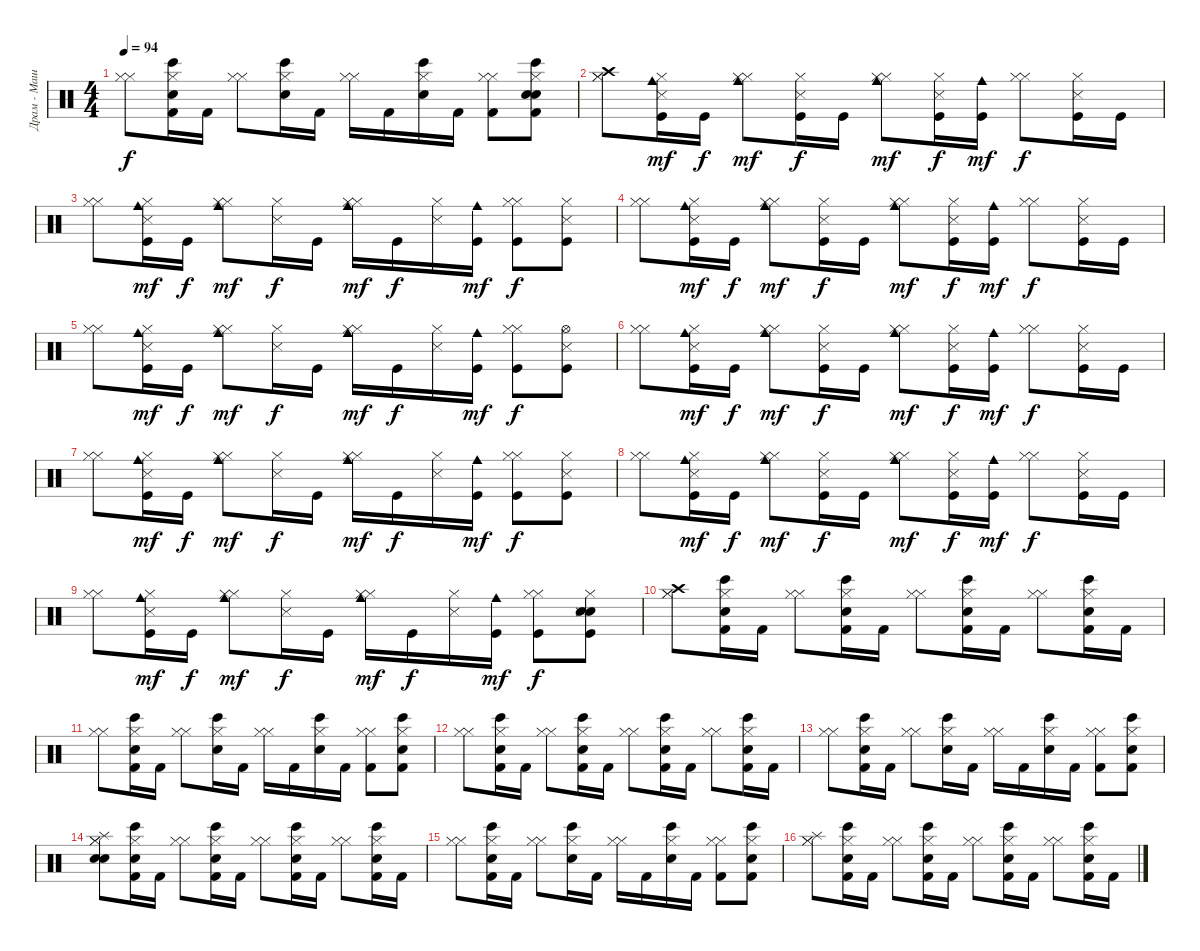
\track ("Драм - Машина" "Драм - Маш") {instrument percussion}
\staff {score}
\articulation defaults
\ts (4 4)
\tempo 94
\clef neutral
\ks c
("Hi-Hat (closed)" "Hi-Hat (closed)").8{dy f} ("Bongo High (hit)" "Snare (hit) 2" "Hi-Hat (closed)" "Kick (hit) 2").16 "Kick (hit) 2".16 ("Hi-Hat (closed)" "Hi-Hat (closed)").8 ("Hi-Hat (closed)" "Snare (hit) 2" "Bongo High (hit)").16 "Kick (hit) 2".16 ("Hi-Hat (closed)" "Hi-Hat (closed)").16 "Kick (hit) 2".16 ("Snare (hit) 2" "Hi-Hat (closed)" "Bongo High (hit)").16 "Kick (hit) 2".16 ("Hi-Hat (closed)" "Hi-Hat (closed)" "Kick (hit) 2").8 ("Electric Snare (hit)" "Bongo High (hit)" "Hi-Hat (closed)" "Snare (hit) 2" "Kick (hit) 2").8 |
("Hi-Hat (closed)" "Crash high (hit)" "Hi-Hat (closed)").8 ("Snare (side stick) 3" "Hi-Hat (closed)" "Kick (hit)" "Cowbell medium (hit)").16{dy mf} "Kick (hit)".16{dy f} ("Cowbell medium (hit)" "Hi-Hat (closed)" "Hi-Hat (closed)").8{dy mf} ("Snare (side stick) 3" "Hi-Hat (closed)" "Kick (hit)").16{dy f} "Kick (hit)".16 ("Hi-Hat (closed)" "Cowbell medium (hit)" "Hi-Hat (closed)").8{dy mf} ("Hi-Hat (closed)" "Snare (side stick) 3" "Kick (hit)").16{dy f} ("Cowbell medium (hit)" "Kick (hit)").16{dy mf} ("Hi-Hat (closed)" "Hi-Hat (closed)").8{dy f} ("Snare (side stick) 3" "Hi-Hat (closed)" "Kick (hit)").16 "Kick (hit)".16 |
("Hi-Hat (closed)" "Hi-Hat (closed)").8 ("Snare (side stick) 3" "Hi-Hat (closed)" "Kick (hit)" "Cowbell medium (hit)").16{dy mf} "Kick (hit)".16{dy f} ("Hi-Hat (closed)" "Cowbell medium (hit)" "Hi-Hat (closed)").8{dy mf} ("Snare (side stick) 3" "Hi-Hat (closed)").16{dy f} "Kick (hit)".16 ("Hi-Hat (closed)" "Cowbell medium (hit)" "Hi-Hat (closed)").16{dy mf} "Kick (hit)".16{dy f} ("Hi-Hat (closed)" "Snare (side stick) 3").16 ("Cowbell medium (hit)" "Kick (hit)").16{dy mf} ("Hi-Hat (closed)" "Hi-Hat (closed)" "Kick (hit)").8{dy f} ("Hi-Hat (closed)" "Snare (side stick) 3" "Kick (hit)").8 |
("Hi-Hat (closed)" "Hi-Hat (closed)").8 ("Hi-Hat (closed)" "Snare (side stick) 3" "Kick (hit)" "Cowbell medium (hit)").16{dy mf} "Kick (hit)".16{dy f} ("Hi-Hat (closed)" "Cowbell medium (hit)" "Hi-Hat (closed)").8{dy mf} ("Snare (side stick) 3" "Hi-Hat (closed)" "Kick (hit)").16{dy f} "Kick (hit)".16 ("Hi-Hat (closed)" "Cowbell medium (hit)" "Hi-Hat (closed)").8{dy mf} ("Hi-Hat (closed)" "Snare (side stick) 3" "Kick (hit)").16{dy f} ("Cowbell medium (hit)" "Kick (hit)").16{dy mf} ("Hi-Hat (closed)" "Hi-Hat (closed)").8{dy f} ("Hi-Hat (closed)" "Snare (side stick) 3" "Kick (hit)").16 "Kick (hit)".16 |
("Hi-Hat (closed)" "Hi-Hat (closed)").8 ("Hi-Hat (closed)" "Snare (side stick) 3" "Kick (hit)" "Cowbell medium (hit)").16{dy mf} "Kick (hit)".16{dy f} ("Cowbell medium (hit)" "Hi-Hat (closed)" "Hi-Hat (closed)").8{dy mf} ("Hi-Hat (closed)" "Snare (side stick) 3").16{dy f} "Kick (hit)".16 ("Cowbell medium (hit)" "Hi-Hat (closed)" "Hi-Hat (closed)").16{dy mf} "Kick (hit)".16{dy f} ("Snare (side stick) 3" "Hi-Hat (closed)").16 ("Cowbell medium (hit)" "Kick (hit)").16{dy mf} ("Hi-Hat (closed)" "Hi-Hat (closed)" "Kick (hit)").8{dy f} ("Snare (side stick) 3" "Hi-Hat (open)" "Kick (hit)").8 |
("Hi-Hat (closed)" "Hi-Hat (closed)").8 ("Hi-Hat (closed)" "Snare (side stick) 3" "Kick (hit)" "Cowbell medium (hit)").16{dy mf} "Kick (hit)".16{dy f} ("Cowbell medium (hit)" "Hi-Hat (closed)" "Hi-Hat (closed)").8{dy mf} ("Hi-Hat (closed)" "Snare (side stick) 3" "Kick (hit)").16{dy f} "Kick (hit)".16 ("Cowbell medium (hit)" "Hi-Hat (closed)" "Hi-Hat (closed)").8{dy mf} ("Hi-Hat (closed)" "Snare (side stick) 3" "Kick (hit)").16{dy f} ("Cowbell medium (hit)" "Kick (hit)").16{dy mf} ("Hi-Hat (closed)" "Hi-Hat (closed)").8{dy f} ("Hi-Hat (closed)" "Snare (side stick) 3" "Kick (hit)").16 "Kick (hit)".16 |
("Hi-Hat (closed)" "Hi-Hat (closed)").8 ("Hi-Hat (closed)" "Snare (side stick) 3" "Kick (hit)" "Cowbell medium (hit)").16{dy mf} "Kick (hit)".16{dy f} ("Hi-Hat (closed)" "Hi-Hat (closed)" "Cowbell medium (hit)").8{dy mf} ("Snare (side stick) 3" "Hi-Hat (closed)").16{dy f} "Kick (hit)".16 ("Cowbell medium (hit)" "Hi-Hat (closed)" "Hi-Hat (closed)").16{dy mf} "Kick (hit)".16{dy f} ("Snare (side stick) 3" "Hi-Hat (closed)").16 ("Cowbell medium (hit)" "Kick (hit)").16{dy mf} ("Hi-Hat (closed)" "Hi-Hat (closed)" "Kick (hit)").8{dy f} ("Snare (side stick) 3" "Hi-Hat (closed)" "Kick (hit)").8 |
("Hi-Hat (closed)" "Hi-Hat (closed)").8 ("Hi-Hat (closed)" "Snare (side stick) 3" "Kick (hit)" "Cowbell medium (hit)").16{dy mf} "Kick (hit)".16{dy f} ("Hi-Hat (closed)" "Cowbell medium (hit)" "Hi-Hat (closed)").8{dy mf} ("Snare (side stick) 3" "Hi-Hat (closed)" "Kick (hit)").16{dy f} "Kick (hit)".16 ("Hi-Hat (closed)" "Cowbell medium (hit)" "Hi-Hat (closed)").8{dy mf} ("Snare (side stick) 3" "Hi-Hat (closed)" "Kick (hit)").16{dy f} ("Cowbell medium (hit)" "Kick (hit)").16{dy mf} ("Hi-Hat (closed)" "Hi-Hat (closed)").8{dy f} ("Hi-Hat (closed)" "Snare (side stick) 3" "Kick (hit)").16 "Kick (hit)".16 |
("Hi-Hat (closed)" "Hi-Hat (closed)").8 ("Hi-Hat (closed)" "Snare (side stick) 3" "Kick (hit)" "Cowbell medium (hit)").16{dy mf} "Kick (hit)".16{dy f} ("Hi-Hat (closed)" "Cowbell medium (hit)" "Hi-Hat (closed)").8{dy mf} ("Hi-Hat (closed)" "Snare (side stick) 3").16{dy f} "Kick (hit)".16 ("Hi-Hat (closed)" "Cowbell medium (hit)" "Hi-Hat (closed)").16{dy mf} "Kick (hit)".16{dy f} ("Snare (side stick) 3" "Hi-Hat (closed)").16 ("Cowbell medium (hit)" "Kick (hit)").16{dy mf} ("Hi-Hat (closed)" "Hi-Hat (closed)" "Kick (hit)").8{dy f} ("Electric Snare (hit)" "Snare (side stick) 3" "Hi-Hat (closed)" "Snare (hit) 2" "Kick (hit)").8 |
("Hi-Hat (closed)" "Hi-Hat (closed)" "Crash high (hit)").8 ("Bongo High (hit)" "Snare (hit) 2" "Hi-Hat (closed)" "Kick (hit) 2").16 "Kick (hit) 2".16 ("Hi-Hat (closed)" "Hi-Hat (closed)").8 ("Snare (hit) 2" "Hi-Hat (closed)" "Bongo High (hit)" "Kick (hit) 2").16 "Kick (hit) 2".16 ("Hi-Hat (closed)" "Hi-Hat (closed)").8 ("Snare (hit) 2" "Bongo High (hit)" "Hi-Hat (closed)" "Kick (hit) 2").16 "Kick (hit) 2".16 ("Hi-Hat (closed)" "Hi-Hat (closed)").8 ("Hi-Hat (closed)" "Bongo High (hit)" "Snare (hit) 2" "Kick (hit) 2").16 "Kick (hit) 2".16 |
("Hi-Hat (closed)" "Hi-Hat (closed)").8 ("Snare (hit) 2" "Hi-Hat (closed)" "Bongo High (hit)" "Kick (hit) 2").16 "Kick (hit) 2".16 ("Hi-Hat (closed)" "Hi-Hat (closed)").8 ("Bongo High (hit)" "Hi-Hat (closed)" "Snare (hit) 2").16 "Kick (hit) 2".16 ("Hi-Hat (closed)" "Hi-Hat (closed)").16 "Kick (hit) 2".16 ("Hi-Hat (closed)" "Bongo High (hit)" "Snare (hit) 2").16 "Kick (hit) 2".16 ("Hi-Hat (closed)" "Hi-Hat (closed)" "Kick (hit) 2").8 ("Snare (hit) 2" "Bongo High (hit)" "Hi-Hat (closed)" "Kick (hit) 2").8 |
("Hi-Hat (closed)" "Hi-Hat (closed)").8 ("Bongo High (hit)" "Hi-Hat (closed)" "Snare (hit) 2" "Kick (hit) 2").16 "Kick (hit) 2".16 ("Hi-Hat (closed)" "Hi-Hat (closed)").8 ("Bongo High (hit)" "Snare (hit) 2" "Hi-Hat (closed)" "Kick (hit) 2").16 "Kick (hit) 2".16 ("Hi-Hat (closed)" "Hi-Hat (closed)").8 ("Hi-Hat (closed)" "Bongo High (hit)" "Snare (hit) 2" "Kick (hit) 2").16 "Kick (hit) 2".16 ("Hi-Hat (closed)" "Hi-Hat (closed)").8 ("Snare (hit) 2" "Bongo High (hit)" "Hi-Hat (closed)" "Kick (hit) 2").16 "Kick (hit) 2".16 |
("Hi-Hat (closed)" "Hi-Hat (closed)").8 ("Snare (hit) 2" "Hi-Hat (closed)" "Bongo High (hit)" "Kick (hit) 2").16 "Kick (hit) 2".16 ("Hi-Hat (closed)" "Hi-Hat (closed)").8 ("Bongo High (hit)" "Snare (hit) 2" "Hi-Hat (closed)").16 "Kick (hit) 2".16 ("Hi-Hat (closed)" "Hi-Hat (closed)").16 "Kick (hit) 2".16 ("Bongo High (hit)" "Snare (hit) 2" "Hi-Hat (closed)").16 "Kick (hit) 2".16 ("Hi-Hat (closed)" "Hi-Hat (closed)" "Kick (hit) 2").8 ("Snare (hit) 2" "Bongo High (hit)" "Hi-Hat (closed)" "Kick (hit) 2").8 |
("Hi-Hat (closed)" "Snare (hit) 2" "Electric Snare (hit)" "Splash (hit)" "Hi-Hat (closed)").8 ("Bongo High (hit)" "Hi-Hat (closed)" "Snare (hit) 2" "Kick (hit) 2").16 "Kick (hit) 2".16 ("Hi-Hat (closed)" "Hi-Hat (closed)").8 ("Snare (hit) 2" "Bongo High (hit)" "Hi-Hat (closed)" "Kick (hit) 2").16 "Kick (hit) 2".16 ("Hi-Hat (closed)" "Hi-Hat (closed)").8 ("Snare (hit) 2" "Hi-Hat (closed)" "Bongo High (hit)" "Kick (hit) 2").16 "Kick (hit) 2".16 ("Hi-Hat (closed)" "Hi-Hat (closed)").8 ("Bongo High (hit)" "Snare (hit) 2" "Hi-Hat (closed)" "Kick (hit) 2").16 "Kick (hit) 2".16 |
("Hi-Hat (closed)" "Hi-Hat (closed)").8 ("Hi-Hat (closed)" "Bongo High (hit)" "Snare (hit) 2" "Kick (hit) 2").16 "Kick (hit) 2".16 ("Hi-Hat (closed)" "Hi-Hat (closed)").8 ("Bongo High (hit)" "Snare (hit) 2" "Hi-Hat (closed)").16 "Kick (hit) 2".16 ("Hi-Hat (closed)" "Hi-Hat (closed)").16 "Kick (hit) 2".16 ("Bongo High (hit)" "Hi-Hat (closed)" "Snare (hit) 2").16 "Kick (hit) 2".16 ("Hi-Hat (closed)" "Hi-Hat (closed)" "Kick (hit) 2").8 ("Snare (hit) 2" "Bongo High (hit)" "Hi-Hat (closed)" "Kick (hit) 2").8 |
("Hi-Hat (closed)" "Splash (hit)" "Hi-Hat (closed)").8 ("Hi-Hat (closed)" "Bongo High (hit)" "Snare (hit) 2" "Kick (hit) 2").16 "Kick (hit) 2".16 ("Hi-Hat (closed)" "Hi-Hat (closed)").8 ("Snare (hit) 2" "Hi-Hat (closed)" "Bongo High (hit)" "Kick (hit) 2").16 "Kick (hit) 2".16 ("Hi-Hat (closed)" "Hi-Hat (closed)").8 ("Bongo High (hit)" "Snare (hit) 2" "Hi-Hat (closed)" "Kick (hit) 2").16 "Kick (hit) 2".16 ("Hi-Hat (closed)" "Hi-Hat (closed)").8 ("Hi-Hat (closed)" "Bongo High (hit)" "Snare (hit) 2" "Kick (hit) 2").16 "Kick (hit) 2".16
